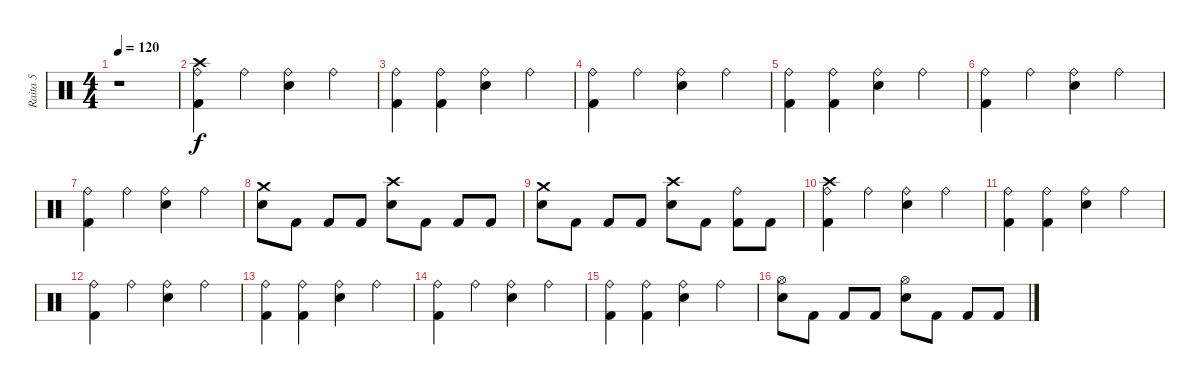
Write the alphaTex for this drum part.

\track ("Raita 5" "Raita 5") {instrument percussion}
\staff {score}
\articulation defaults
\ts (4 4)
\tempo 120
\clef neutral
\ks c
r.1{dy f} |
("Crash high (hit)" "Ride (bell)" "Kick (hit) 2").4 "Ride (bell)".4 ("Ride (bell)" "Snare (hit) 2").4 "Ride (bell)".4 |
("Ride (bell)" "Kick (hit) 2").4 ("Ride (bell)" "Kick (hit) 2").4 ("Ride (bell)" "Snare (hit) 2").4 "Ride (bell)".4 |
("Ride (bell)" "Kick (hit) 2").4 "Ride (bell)".4 ("Ride (bell)" "Snare (hit) 2").4 "Ride (bell)".4 |
("Ride (bell)" "Kick (hit) 2").4 ("Ride (bell)" "Kick (hit) 2").4 ("Ride (bell)" "Snare (hit) 2").4 "Ride (bell)".4 |
("Ride (bell)" "Kick (hit) 2").4 "Ride (bell)".4 ("Ride (bell)" "Snare (hit) 2").4 "Ride (bell)".4 |
("Ride (bell)" "Kick (hit) 2").4 "Ride (bell)".4 ("Ride (bell)" "Snare (hit) 2").4 "Ride (bell)".4 |
("Crash medium (hit)" "Snare (hit) 2").8 "Kick (hit) 2".8 "Kick (hit) 2".8 "Kick (hit) 2".8 ("Crash high (hit)" "Snare (hit) 2").8 "Kick (hit) 2".8 "Kick (hit) 2".8 "Kick (hit) 2".8 |
("Crash medium (hit)" "Snare (hit) 2").8 "Kick (hit) 2".8 "Kick (hit) 2".8 "Kick (hit) 2".8 ("Crash high (hit)" "Snare (hit) 2").8 "Kick (hit) 2".8 ("Ride (bell)" "Kick (hit) 2").8 "Kick (hit) 2".8 |
("Crash high (hit)" "Ride (bell)" "Kick (hit) 2").4 "Ride (bell)".4 ("Ride (bell)" "Snare (hit) 2").4 "Ride (bell)".4 |
("Ride (bell)" "Kick (hit) 2").4 ("Ride (bell)" "Kick (hit) 2").4 ("Ride (bell)" "Snare (hit) 2").4 "Ride (bell)".4 |
("Ride (bell)" "Kick (hit) 2").4 "Ride (bell)".4 ("Ride (bell)" "Snare (hit) 2").4 "Ride (bell)".4 |
("Ride (bell)" "Kick (hit) 2").4 ("Ride (bell)" "Kick (hit) 2").4 ("Ride (bell)" "Snare (hit) 2").4 "Ride (bell)".4 |
("Ride (bell)" "Kick (hit) 2").4 "Ride (bell)".4 ("Ride (bell)" "Snare (hit) 2").4 "Ride (bell)".4 |
("Ride (bell)" "Kick (hit) 2").4 ("Ride (bell)" "Kick (hit) 2").4 ("Ride (bell)" "Snare (hit) 2").4 "Ride (bell)".4 |
("Hi-Hat (open)" "Snare (hit) 2").8 "Kick (hit) 2".8 "Kick (hit) 2".8 "Kick (hit) 2".8 ("Hi-Hat (open)" "Snare (hit) 2").8 "Kick (hit) 2".8 "Kick (hit) 2".8 "Kick (hit) 2".8
